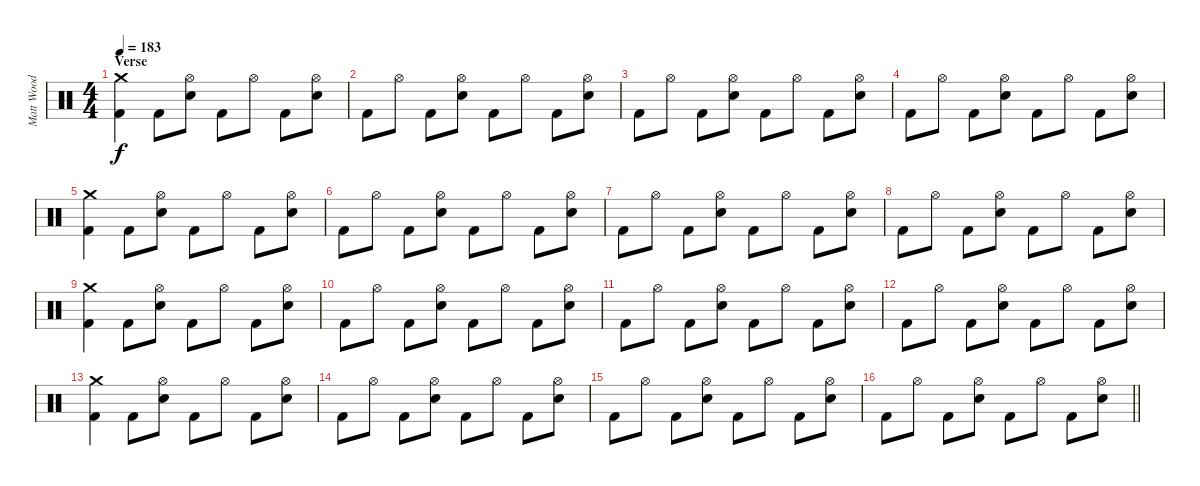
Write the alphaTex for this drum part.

\track ("Matt Wood" "Matt Wood") {instrument percussion}
\staff {score}
\articulation defaults
\ts (4 4)
\section ("" "Verse")
\tempo 183
\clef neutral
\ks c
("Crash medium (hit)" "Kick (hit) 2").4{dy f} "Kick (hit) 2".8 ("Hi-Hat (open)" "Snare (hit) 2").8 "Kick (hit) 2".8 "Hi-Hat (open)".8 "Kick (hit) 2".8 ("Hi-Hat (open)" "Snare (hit) 2").8 |
"Kick (hit) 2".8 "Hi-Hat (open)".8 "Kick (hit) 2".8 ("Hi-Hat (open)" "Snare (hit) 2").8 "Kick (hit) 2".8 "Hi-Hat (open)".8 "Kick (hit) 2".8 ("Hi-Hat (open)" "Snare (hit) 2").8 |
"Kick (hit) 2".8 "Hi-Hat (open)".8 "Kick (hit) 2".8 ("Hi-Hat (open)" "Snare (hit) 2").8 "Kick (hit) 2".8 "Hi-Hat (open)".8 "Kick (hit) 2".8 ("Hi-Hat (open)" "Snare (hit) 2").8 |
"Kick (hit) 2".8 "Hi-Hat (open)".8 "Kick (hit) 2".8 ("Hi-Hat (open)" "Snare (hit) 2").8 "Kick (hit) 2".8 "Hi-Hat (open)".8 "Kick (hit) 2".8 ("Hi-Hat (open)" "Snare (hit) 2").8 |
("Crash medium (hit)" "Kick (hit) 2").4 "Kick (hit) 2".8 ("Hi-Hat (open)" "Snare (hit) 2").8 "Kick (hit) 2".8 "Hi-Hat (open)".8 "Kick (hit) 2".8 ("Hi-Hat (open)" "Snare (hit) 2").8 |
"Kick (hit) 2".8 "Hi-Hat (open)".8 "Kick (hit) 2".8 ("Hi-Hat (open)" "Snare (hit) 2").8 "Kick (hit) 2".8 "Hi-Hat (open)".8 "Kick (hit) 2".8 ("Hi-Hat (open)" "Snare (hit) 2").8 |
"Kick (hit) 2".8 "Hi-Hat (open)".8 "Kick (hit) 2".8 ("Hi-Hat (open)" "Snare (hit) 2").8 "Kick (hit) 2".8 "Hi-Hat (open)".8 "Kick (hit) 2".8 ("Hi-Hat (open)" "Snare (hit) 2").8 |
"Kick (hit) 2".8 "Hi-Hat (open)".8 "Kick (hit) 2".8 ("Hi-Hat (open)" "Snare (hit) 2").8 "Kick (hit) 2".8 "Hi-Hat (open)".8 "Kick (hit) 2".8 ("Hi-Hat (open)" "Snare (hit) 2").8 |
("Crash medium (hit)" "Kick (hit) 2").4 "Kick (hit) 2".8 ("Hi-Hat (open)" "Snare (hit) 2").8 "Kick (hit) 2".8 "Hi-Hat (open)".8 "Kick (hit) 2".8 ("Hi-Hat (open)" "Snare (hit) 2").8 |
"Kick (hit) 2".8 "Hi-Hat (open)".8 "Kick (hit) 2".8 ("Hi-Hat (open)" "Snare (hit) 2").8 "Kick (hit) 2".8 "Hi-Hat (open)".8 "Kick (hit) 2".8 ("Hi-Hat (open)" "Snare (hit) 2").8 |
"Kick (hit) 2".8 "Hi-Hat (open)".8 "Kick (hit) 2".8 ("Hi-Hat (open)" "Snare (hit) 2").8 "Kick (hit) 2".8 "Hi-Hat (open)".8 "Kick (hit) 2".8 ("Hi-Hat (open)" "Snare (hit) 2").8 |
"Kick (hit) 2".8 "Hi-Hat (open)".8 "Kick (hit) 2".8 ("Hi-Hat (open)" "Snare (hit) 2").8 "Kick (hit) 2".8 "Hi-Hat (open)".8 "Kick (hit) 2".8 ("Hi-Hat (open)" "Snare (hit) 2").8 |
("Crash medium (hit)" "Kick (hit) 2").4 "Kick (hit) 2".8 ("Hi-Hat (open)" "Snare (hit) 2").8 "Kick (hit) 2".8 "Hi-Hat (open)".8 "Kick (hit) 2".8 ("Hi-Hat (open)" "Snare (hit) 2").8 |
"Kick (hit) 2".8 "Hi-Hat (open)".8 "Kick (hit) 2".8 ("Hi-Hat (open)" "Snare (hit) 2").8 "Kick (hit) 2".8 "Hi-Hat (open)".8 "Kick (hit) 2".8 ("Hi-Hat (open)" "Snare (hit) 2").8 |
"Kick (hit) 2".8 "Hi-Hat (open)".8 "Kick (hit) 2".8 ("Hi-Hat (open)" "Snare (hit) 2").8 "Kick (hit) 2".8 "Hi-Hat (open)".8 "Kick (hit) 2".8 ("Hi-Hat (open)" "Snare (hit) 2").8 |
\barLineRight lightlight "Kick (hit) 2".8 "Hi-Hat (open)".8 "Kick (hit) 2".8
("Hi-Hat (open)" "Snare (hit) 2").8 "Kick (hit) 2".8 "Hi-Hat (open)".8 "Kick (hit) 2".8 ("Hi-Hat (open)" "Snare (hit) 2").8
